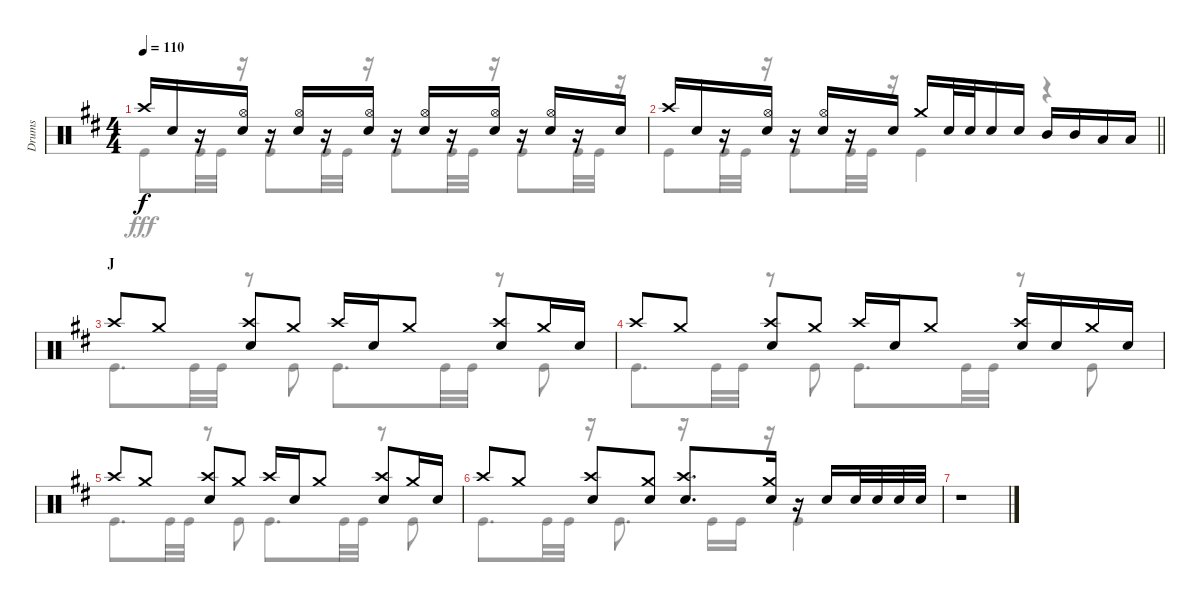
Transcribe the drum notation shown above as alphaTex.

\track ("Drums" "Drums") {instrument percussion}
\staff {score}
\articulation defaults
\voice
\ts (4 4)
\tempo 110
\clef neutral
\ks d "Crash high (hit)".16{dy f} "Snare (hit) 2".16
r.16 ("Hi-Hat (open)" "Snare (hit) 2").16 r.16 ("Hi-Hat (open)" "Snare (hit) 2").16 r.16 ("Hi-Hat (open)" "Snare (hit) 2").16 r.16 ("Hi-Hat (open)" "Snare (hit) 2").16 r.16 ("Hi-Hat (open)" "Snare (hit) 2").16 r.16 ("Hi-Hat (open)" "Snare (hit) 2").16 r.16 "Snare (hit) 2".16 |
\barLineRight lightlight "Crash high (hit)".16 "Snare (hit) 2".16
r.16 ("Hi-Hat (open)" "Snare (hit) 2").16 r.16 ("Hi-Hat (open)" "Snare (hit) 2").16 r.16 "Snare (hit) 2".16 "Crash medium (hit)".16 "Snare (hit) 2".32 "Snare (hit) 2".32 "Snare (hit) 2".16 "Snare (hit) 2".16 "Mid Tom (hit)".16 "Mid Tom (hit)".16 "Low Tom (hit)".16 "Low Tom (hit)".16 |
\section ("" "J")
"Crash high (hit)".8 "Crash medium (hit)".8 ("Crash high (hit)" "Snare (hit) 2").8 "Crash medium (hit)".8 "Crash high (hit)".16 "Snare (hit) 2".16 "Crash medium (hit)".8 ("Crash high (hit)" "Snare (hit) 2").8 "Crash medium (hit)".16 "Snare (hit) 2".16 |
"Crash high (hit)".8 "Crash medium (hit)".8 ("Crash high (hit)" "Snare (hit) 2").8 "Crash medium (hit)".8 "Crash high (hit)".16 "Snare (hit) 2".16 "Crash medium (hit)".8 ("Crash high (hit)" "Snare (hit) 2").16 "Snare (hit) 2".16 "Crash medium (hit)".16 "Snare (hit) 2".16 |
"Crash high (hit)".8 "Crash medium (hit)".8 ("Crash high (hit)" "Snare (hit) 2").8 "Crash medium (hit)".8 "Crash high (hit)".16 "Snare (hit) 2".16 "Crash medium (hit)".8 ("Crash high (hit)" "Snare (hit) 2").8 "Crash medium (hit)".16 "Snare (hit) 2".16 |
"Crash high (hit)".8 "Crash medium (hit)".8 ("Crash high (hit)" "Snare (hit) 2").8 ("Crash medium (hit)" "Snare (hit) 2").8 ("Crash high (hit)" "Snare (hit) 2").8{d} ("Crash medium (hit)" "Snare (hit) 2").16 r.16 "Snare (hit) 2".16 "Snare (hit) 2".32 "Snare (hit) 2".32 "Snare (hit) 2".32 "Snare (hit) 2".32 |
r.1
\voice
\clef neutral
\ottava regular
\simile none
\ks d "Kick (hit)".8{dy fff} "Kick (hit)".32 "Kick (hit)".32
r.16 "Kick (hit)".8 "Kick (hit)".32 "Kick (hit)".32 r.16 "Kick (hit)".8 "Kick (hit)".32 "Kick (hit)".32 r.16 "Kick (hit)".8 "Kick (hit)".32 "Kick (hit)".32 r.16 |
\barLineRight lightlight "Kick (hit)".8 "Kick (hit)".32 "Kick (hit)".32
r.16 "Kick (hit)".8 "Kick (hit)".32 "Kick (hit)".32 r.16 "Kick (hit)".4 r.4 |
"Kick (hit)".8{d} "Kick (hit)".32 "Kick (hit)".32 r.8 "Kick (hit)".8 "Kick (hit)".8{d} "Kick (hit)".32 "Kick (hit)".32 r.8 "Kick (hit)".8 |
"Kick (hit)".8{d} "Kick (hit)".32 "Kick (hit)".32 r.8 "Kick (hit)".8 "Kick (hit)".8{d} "Kick (hit)".32 "Kick (hit)".32 r.8 "Kick (hit)".8 |
"Kick (hit)".8{d} "Kick (hit)".32 "Kick (hit)".32 r.8 "Kick (hit)".8 "Kick (hit)".8{d} "Kick (hit)".32 "Kick (hit)".32 r.8 "Kick (hit)".8 |
"Kick (hit)".8{d} "Kick (hit)".32 "Kick (hit)".32 r.16 "Kick (hit)".8{d} r.16 "Kick (hit)".16 "Kick (hit)".16 r.16 "Kick (hit)".4 |
r.1
